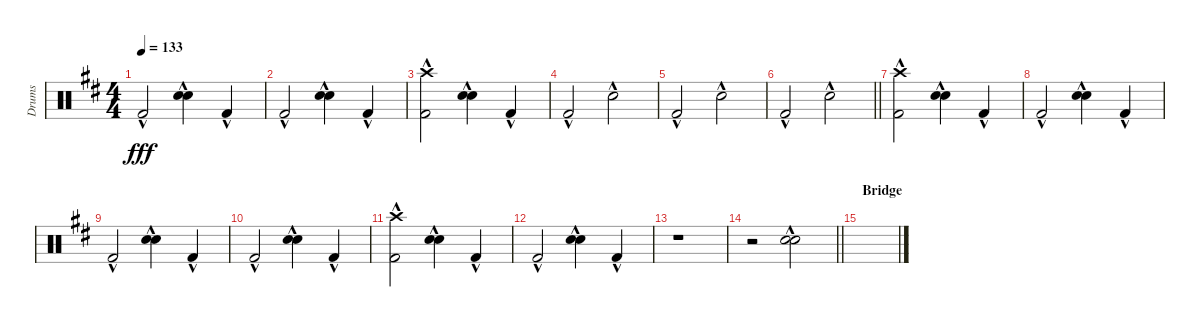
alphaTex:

\track ("Drums" "Drums") {instrument percussion}
\staff {score}
\articulation defaults
\ts (4 4)
\tempo 133
\clef neutral
\ks bminor "Kick (hit) 2"{hac}.2{dy fff}
("Hand Clap (hit)"{hac} "Snare (hit) 2"{hac}).4 "Kick (hit) 2"{hac}.4 |
"Kick (hit) 2"{hac}.2 ("Hand Clap (hit)"{hac} "Snare (hit) 2"{hac}).4 "Kick (hit) 2"{hac}.4 |
("Crash high (hit)"{hac} "Kick (hit) 2"{hac}).2 ("Hand Clap (hit)"{hac} "Snare (hit) 2"{hac}).4 "Kick (hit) 2"{hac}.4 |
"Kick (hit) 2"{hac}.2 "Snare (hit) 2"{hac}.2 |
"Kick (hit) 2"{hac}.2 "Snare (hit) 2"{hac}.2 |
\barLineRight lightlight "Kick (hit) 2"{hac}.2 "Snare (hit) 2"{hac}.2
|
("Crash high (hit)"{hac} "Kick (hit) 2"{hac}).2 ("Hand Clap (hit)"{hac} "Snare (hit) 2"{hac}).4 "Kick (hit) 2"{hac}.4 |
"Kick (hit) 2"{hac}.2 ("Hand Clap (hit)"{hac} "Snare (hit) 2"{hac}).4 "Kick (hit) 2"{hac}.4 |
"Kick (hit) 2"{hac}.2 ("Hand Clap (hit)"{hac} "Snare (hit) 2"{hac}).4 "Kick (hit) 2"{hac}.4 |
"Kick (hit) 2"{hac}.2 ("Hand Clap (hit)"{hac} "Snare (hit) 2"{hac}).4 "Kick (hit) 2"{hac}.4 |
("Crash high (hit)"{hac} "Kick (hit) 2"{hac}).2 ("Hand Clap (hit)"{hac} "Snare (hit) 2"{hac}).4 "Kick (hit) 2"{hac}.4 |
"Kick (hit) 2"{hac}.2 ("Hand Clap (hit)"{hac} "Snare (hit) 2"{hac}).4 "Kick (hit) 2"{hac}.4 |
r.1 |
\barLineRight lightlight
r.2 ("Hand Clap (hit)"{hac} "Snare (hit) 2"{hac}).2 |
\section ("" "Bridge")
